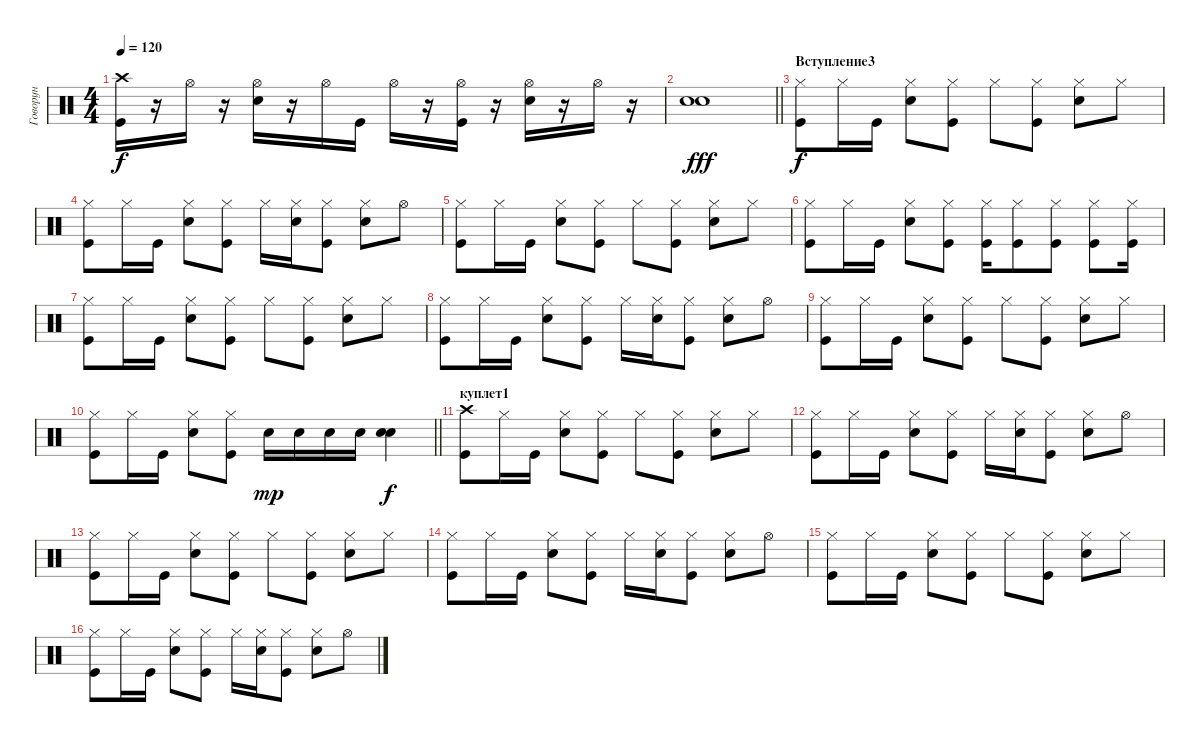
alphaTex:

\track ("Говорун" "Говорун") {instrument percussion}
\staff {score}
\articulation defaults
\ts (4 4)
\tempo 120
\clef neutral
\ks c
("Crash high (hit)" "Kick (hit)").16{dy f} r.16 "Hi-Hat (open)".16 r.16 ("Hi-Hat (open)" "Snare (hit) 2").16 r.16 "Hi-Hat (open)".16 "Kick (hit)".16 "Hi-Hat (open)".16 r.16 ("Hi-Hat (open)" "Kick (hit)").16 r.16 ("Hi-Hat (open)" "Snare (hit) 2").16 r.16 "Hi-Hat (open)".16 r.16 |
\barLineRight lightlight
("Snare (hit) 2" "Snare (hit) 2").1{dy fff} |
\section ("" "Вступление3")
("Hi-Hat (closed)" "Kick (hit)").8{dy f} "Hi-Hat (closed)".16 "Kick (hit)".16 ("Hi-Hat (closed)" "Snare (hit) 2").8 ("Hi-Hat (closed)" "Kick (hit)").8 "Hi-Hat (closed)".8 ("Hi-Hat (closed)" "Kick (hit)").8 ("Hi-Hat (closed)" "Snare (hit) 2").8 "Hi-Hat (closed)".8 |
("Hi-Hat (closed)" "Kick (hit)").8 "Hi-Hat (closed)".16 "Kick (hit)".16 ("Hi-Hat (closed)" "Snare (hit) 2").8 ("Hi-Hat (closed)" "Kick (hit)").8 "Hi-Hat (closed)".16 ("Hi-Hat (closed)" "Snare (hit) 2").16 ("Hi-Hat (closed)" "Kick (hit)").8 ("Hi-Hat (closed)" "Snare (hit) 2").8 "Hi-Hat (open)".8 |
("Hi-Hat (closed)" "Kick (hit)").8 "Hi-Hat (closed)".16 "Kick (hit)".16 ("Hi-Hat (closed)" "Snare (hit) 2").8 ("Hi-Hat (closed)" "Kick (hit)").8 "Hi-Hat (closed)".8 ("Hi-Hat (closed)" "Kick (hit)").8 ("Hi-Hat (closed)" "Snare (hit) 2").8 "Hi-Hat (closed)".8 |
("Hi-Hat (closed)" "Kick (hit)").8 "Hi-Hat (closed)".16 "Kick (hit)".16 ("Hi-Hat (closed)" "Snare (hit) 2").8 ("Hi-Hat (closed)" "Kick (hit)").8 ("Kick (hit)" "Hi-Hat (closed)").16 ("Kick (hit)" "Hi-Hat (closed)").8 ("Kick (hit)" "Hi-Hat (closed)").8 ("Kick (hit)" "Hi-Hat (closed)").8 ("Kick (hit)" "Hi-Hat (closed)").16 |
("Hi-Hat (closed)" "Kick (hit)").8 "Hi-Hat (closed)".16 "Kick (hit)".16 ("Hi-Hat (closed)" "Snare (hit) 2").8 ("Hi-Hat (closed)" "Kick (hit)").8 "Hi-Hat (closed)".8 ("Hi-Hat (closed)" "Kick (hit)").8 ("Hi-Hat (closed)" "Snare (hit) 2").8 "Hi-Hat (closed)".8 |
("Hi-Hat (closed)" "Kick (hit)").8 "Hi-Hat (closed)".16 "Kick (hit)".16 ("Hi-Hat (closed)" "Snare (hit) 2").8 ("Hi-Hat (closed)" "Kick (hit)").8 "Hi-Hat (closed)".16 ("Hi-Hat (closed)" "Snare (hit) 2").16 ("Hi-Hat (closed)" "Kick (hit)").8 ("Hi-Hat (closed)" "Snare (hit) 2").8 "Hi-Hat (open)".8 |
("Hi-Hat (closed)" "Kick (hit)").8 "Hi-Hat (closed)".16 "Kick (hit)".16 ("Hi-Hat (closed)" "Snare (hit) 2").8 ("Hi-Hat (closed)" "Kick (hit)").8 "Hi-Hat (closed)".8 ("Hi-Hat (closed)" "Kick (hit)").8 ("Hi-Hat (closed)" "Snare (hit) 2").8 "Hi-Hat (closed)".8 |
\barLineRight lightlight
("Hi-Hat (closed)" "Kick (hit)").8 "Hi-Hat (closed)".16 "Kick (hit)".16 ("Hi-Hat (closed)" "Snare (hit) 2").8 ("Hi-Hat (closed)" "Kick (hit)").8 "Snare (hit) 2".16{dy mp} "Snare (hit) 2".16 "Snare (hit) 2".16 "Snare (hit) 2".16 ("Snare (hit) 2" "Snare (hit) 2").4{dy f} |
\section ("" "куплет1")
("Kick (hit)" "Crash high (hit)").8 "Hi-Hat (closed)".16 "Kick (hit)".16 ("Hi-Hat (closed)" "Snare (hit) 2").8 ("Hi-Hat (closed)" "Kick (hit)").8 "Hi-Hat (closed)".8 ("Hi-Hat (closed)" "Kick (hit)").8 ("Hi-Hat (closed)" "Snare (hit) 2").8 "Hi-Hat (closed)".8 |
("Hi-Hat (closed)" "Kick (hit)").8 "Hi-Hat (closed)".16 "Kick (hit)".16 ("Hi-Hat (closed)" "Snare (hit) 2").8 ("Hi-Hat (closed)" "Kick (hit)").8 "Hi-Hat (closed)".16 ("Hi-Hat (closed)" "Snare (hit) 2").16 ("Hi-Hat (closed)" "Kick (hit)").8 ("Hi-Hat (closed)" "Snare (hit) 2").8 "Hi-Hat (open)".8 |
("Hi-Hat (closed)" "Kick (hit)").8 "Hi-Hat (closed)".16 "Kick (hit)".16 ("Hi-Hat (closed)" "Snare (hit) 2").8 ("Hi-Hat (closed)" "Kick (hit)").8 "Hi-Hat (closed)".8 ("Hi-Hat (closed)" "Kick (hit)").8 ("Hi-Hat (closed)" "Snare (hit) 2").8 "Hi-Hat (closed)".8 |
("Hi-Hat (closed)" "Kick (hit)").8 "Hi-Hat (closed)".16 "Kick (hit)".16 ("Hi-Hat (closed)" "Snare (hit) 2").8 ("Hi-Hat (closed)" "Kick (hit)").8 "Hi-Hat (closed)".16 ("Hi-Hat (closed)" "Snare (hit) 2").16 ("Hi-Hat (closed)" "Kick (hit)").8 ("Hi-Hat (closed)" "Snare (hit) 2").8 "Hi-Hat (open)".8 |
("Hi-Hat (closed)" "Kick (hit)").8 "Hi-Hat (closed)".16 "Kick (hit)".16 ("Hi-Hat (closed)" "Snare (hit) 2").8 ("Hi-Hat (closed)" "Kick (hit)").8 "Hi-Hat (closed)".8 ("Hi-Hat (closed)" "Kick (hit)").8 ("Hi-Hat (closed)" "Snare (hit) 2").8 "Hi-Hat (closed)".8 |
("Hi-Hat (closed)" "Kick (hit)").8 "Hi-Hat (closed)".16 "Kick (hit)".16 ("Hi-Hat (closed)" "Snare (hit) 2").8 ("Hi-Hat (closed)" "Kick (hit)").8 "Hi-Hat (closed)".16 ("Hi-Hat (closed)" "Snare (hit) 2").16 ("Hi-Hat (closed)" "Kick (hit)").8 ("Hi-Hat (closed)" "Snare (hit) 2").8 "Hi-Hat (open)".8
